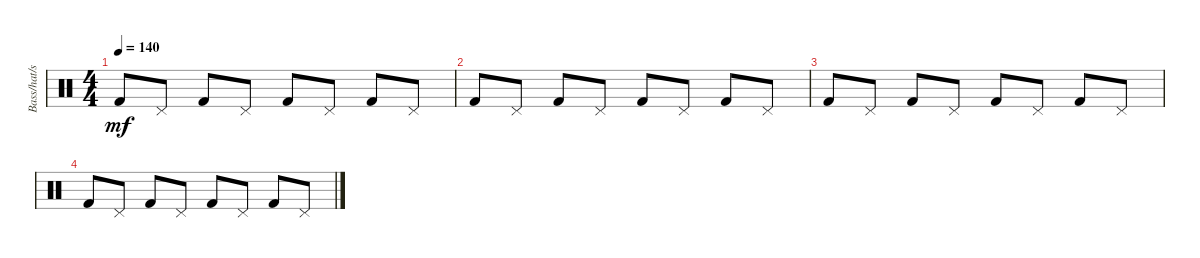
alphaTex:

\track ("Bass/hat/snare/cymbal" "Bass/hat/s") {instrument percussion}
\staff {score}
\articulation defaults
\ts (4 4)
\tempo 140
\clef neutral
\ks c "Kick (hit) 2".8{dy mf} "Pedal Hi-Hat (hit)".8 "Kick (hit) 2".8 "Pedal Hi-Hat (hit)".8 "Kick (hit) 2".8 "Pedal Hi-Hat (hit)".8 "Kick (hit) 2".8 "Pedal Hi-Hat (hit)".8
|
"Kick (hit) 2".8 "Pedal Hi-Hat (hit)".8 "Kick (hit) 2".8 "Pedal Hi-Hat (hit)".8 "Kick (hit) 2".8 "Pedal Hi-Hat (hit)".8 "Kick (hit) 2".8 "Pedal Hi-Hat (hit)".8 |
"Kick (hit) 2".8 "Pedal Hi-Hat (hit)".8 "Kick (hit) 2".8 "Pedal Hi-Hat (hit)".8 "Kick (hit) 2".8 "Pedal Hi-Hat (hit)".8 "Kick (hit) 2".8 "Pedal Hi-Hat (hit)".8 |
"Kick (hit) 2".8 "Pedal Hi-Hat (hit)".8 "Kick (hit) 2".8 "Pedal Hi-Hat (hit)".8 "Kick (hit) 2".8 "Pedal Hi-Hat (hit)".8 "Kick (hit) 2".8 "Pedal Hi-Hat (hit)".8
